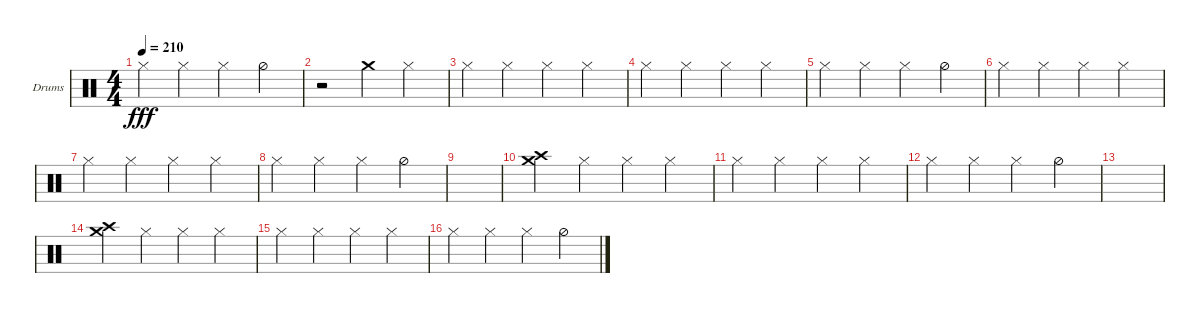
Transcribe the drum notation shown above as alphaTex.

\defaultSystemsLayout 4
\bracketExtendMode groupsimilarinstruments
\firstSystemTrackNameOrientation horizontal
\otherSystemsTrackNameOrientation horizontal
\track ("Helders" "Drums") {instrument percussion}
\staff {score}
\articulation defaults
\ts (4 4)
\tempo 210
\clef neutral
\ks c "Hi-Hat (closed)".4{dy fff} "Hi-Hat (closed)".4 "Hi-Hat (closed)".4 "Hi-Hat (half)".4
|
r.2 "Crash medium (hit)".4 "Hi-Hat (closed)".4 |
"Hi-Hat (closed)".4 "Hi-Hat (closed)".4 "Hi-Hat (closed)".4 "Hi-Hat (closed)".4 |
"Hi-Hat (closed)".4 "Hi-Hat (closed)".4 "Hi-Hat (closed)".4 "Hi-Hat (closed)".4 |
"Hi-Hat (closed)".4 "Hi-Hat (closed)".4 "Hi-Hat (closed)".4 "Hi-Hat (half)".4 |
"Hi-Hat (closed)".4 "Hi-Hat (closed)".4 "Hi-Hat (closed)".4 "Hi-Hat (closed)".4 |
"Hi-Hat (closed)".4 "Hi-Hat (closed)".4 "Hi-Hat (closed)".4 "Hi-Hat (closed)".4 |
"Hi-Hat (closed)".4 "Hi-Hat (closed)".4 "Hi-Hat (closed)".4 "Hi-Hat (half)".4 |
|
("Crash medium (hit)" "Crash high (hit)").4 "Hi-Hat (closed)".4 "Hi-Hat (closed)".4 "Hi-Hat (closed)".4 |
"Hi-Hat (closed)".4 "Hi-Hat (closed)".4 "Hi-Hat (closed)".4 "Hi-Hat (closed)".4 |
"Hi-Hat (closed)".4 "Hi-Hat (closed)".4 "Hi-Hat (closed)".4 "Hi-Hat (half)".4 |
|
("Crash medium (hit)" "Crash high (hit)").4 "Hi-Hat (closed)".4 "Hi-Hat (closed)".4 "Hi-Hat (closed)".4 |
"Hi-Hat (closed)".4 "Hi-Hat (closed)".4 "Hi-Hat (closed)".4 "Hi-Hat (closed)".4 |
"Hi-Hat (closed)".4 "Hi-Hat (closed)".4 "Hi-Hat (closed)".4 "Hi-Hat (half)".4
